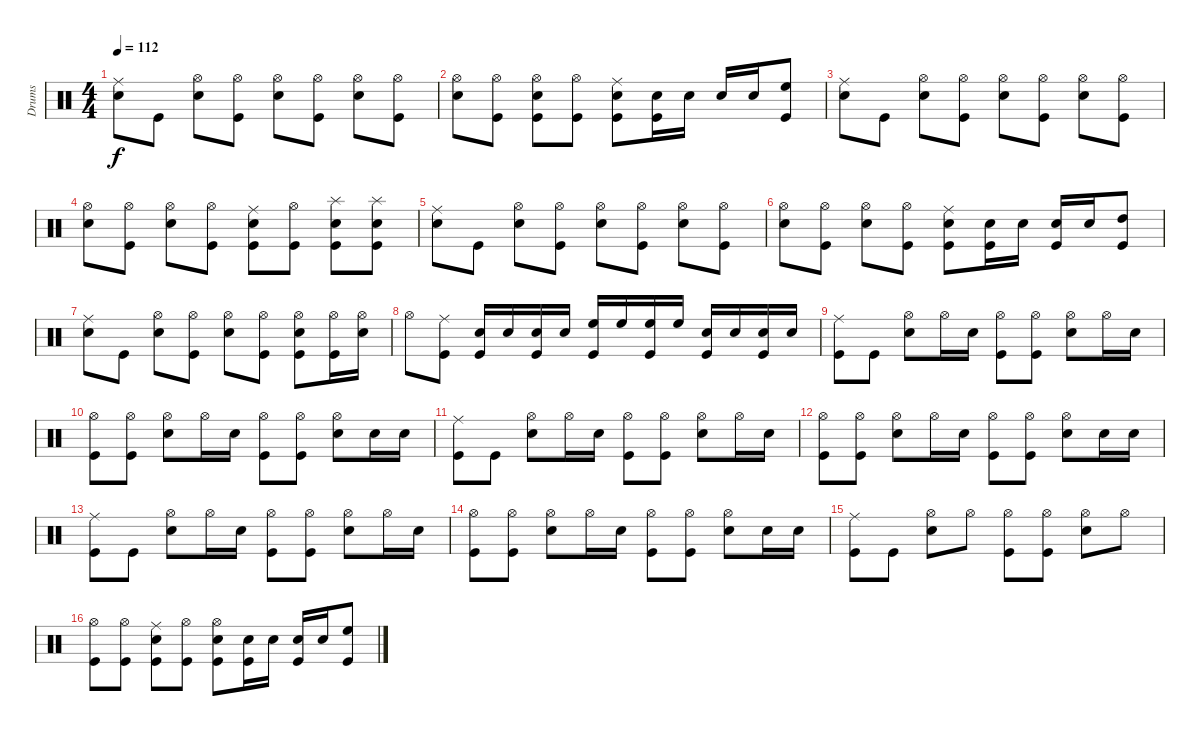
\track ("Drums" "Drums") {instrument percussion}
\staff {score}
\articulation defaults
\ts (4 4)
\tempo 112
\clef neutral
\ks c
("Ride (middle)" "Snare (hit) 2").8{dy f} "Kick (hit)".8 ("Hi-Hat (open)" "Snare (hit) 2").8 ("Hi-Hat (open)" "Kick (hit)").8 ("Hi-Hat (open)" "Snare (hit) 2").8 ("Hi-Hat (open)" "Kick (hit)").8 ("Hi-Hat (open)" "Snare (hit) 2").8 ("Hi-Hat (open)" "Kick (hit)").8 |
("Hi-Hat (open)" "Snare (hit) 2").8 ("Hi-Hat (open)" "Kick (hit)").8 ("Hi-Hat (open)" "Snare (hit) 2" "Kick (hit)").8 ("Hi-Hat (open)" "Kick (hit)").8 ("Ride (middle)" "Snare (hit) 2" "Kick (hit)").8 ("Snare (hit) 2" "Kick (hit)").16 "Snare (hit) 2".16 "Snare (hit) 2".16 "Snare (hit) 2".16 ("High Floor Tom (hit)" "Kick (hit)").8 |
("Ride (middle)" "Snare (hit) 2").8 "Kick (hit)".8 ("Hi-Hat (open)" "Snare (hit) 2").8 ("Hi-Hat (open)" "Kick (hit)").8 ("Hi-Hat (open)" "Snare (hit) 2").8 ("Hi-Hat (open)" "Kick (hit)").8 ("Hi-Hat (open)" "Snare (hit) 2").8 ("Hi-Hat (open)" "Kick (hit)").8 |
("Hi-Hat (open)" "Snare (hit) 2").8 ("Hi-Hat (open)" "Kick (hit)").8 ("Hi-Hat (open)" "Snare (hit) 2").8 ("Hi-Hat (open)" "Kick (hit)").8 ("Ride (middle)" "Snare (hit) 2" "Kick (hit)").8 ("Hi-Hat (open)" "Kick (hit)").8 ("Splash (hit)" "Snare (hit) 2" "Kick (hit)").8 ("Splash (hit)" "Snare (hit) 2" "Kick (hit)").8 |
("Ride (middle)" "Snare (hit) 2").8 "Kick (hit)".8 ("Hi-Hat (open)" "Snare (hit) 2").8 ("Hi-Hat (open)" "Kick (hit)").8 ("Hi-Hat (open)" "Snare (hit) 2").8 ("Hi-Hat (open)" "Kick (hit)").8 ("Hi-Hat (open)" "Snare (hit) 2").8 ("Hi-Hat (open)" "Kick (hit)").8 |
("Hi-Hat (open)" "Snare (hit) 2").8 ("Hi-Hat (open)" "Kick (hit)").8 ("Hi-Hat (open)" "Snare (hit) 2").8 ("Hi-Hat (open)" "Kick (hit)").8 ("Ride (middle)" "Snare (hit) 2" "Kick (hit)").8 ("Snare (hit) 2" "Kick (hit)").16 "Snare (hit) 2".16 ("Snare (hit) 2" "Kick (hit)").16 "Snare (hit) 2".16 ("High Tom (hit)" "Kick (hit)").8 |
("Ride (middle)" "Snare (hit) 2").8 "Kick (hit)".8 ("Hi-Hat (open)" "Snare (hit) 2").8 ("Hi-Hat (open)" "Kick (hit)").8 ("Hi-Hat (open)" "Snare (hit) 2").8 ("Hi-Hat (open)" "Kick (hit)").8 ("Hi-Hat (open)" "Snare (hit) 2" "Kick (hit)").8 ("Hi-Hat (open)" "Kick (hit)").16 ("Hi-Hat (open)" "Snare (hit) 2").16 |
"Hi-Hat (open)".8 ("Ride (middle)" "Kick (hit)").8 ("Snare (hit) 2" "Kick (hit)").16 "Snare (hit) 2".16 ("Snare (hit) 2" "Kick (hit)").16 "Snare (hit) 2".16 ("High Floor Tom (hit)" "Kick (hit)").16 "High Floor Tom (hit)".16 ("High Floor Tom (hit)" "Kick (hit)").16 "High Floor Tom (hit)".16 ("Snare (hit) 2" "Kick (hit)").16 "Snare (hit) 2".16 ("Snare (hit) 2" "Kick (hit)").16 "Snare (hit) 2".16 |
("Ride (middle)" "Kick (hit)").8 "Kick (hit)".8 ("Hi-Hat (open)" "Snare (hit) 2").8 "Hi-Hat (open)".16 "Snare (hit) 2".16 ("Hi-Hat (open)" "Kick (hit)").8 ("Hi-Hat (open)" "Kick (hit)").8 ("Hi-Hat (open)" "Snare (hit) 2").8 "Hi-Hat (open)".16 "Snare (hit) 2".16 |
("Hi-Hat (open)" "Kick (hit)").8 ("Hi-Hat (open)" "Kick (hit)").8 ("Hi-Hat (open)" "Snare (hit) 2").8 "Hi-Hat (open)".16 "Snare (hit) 2".16 ("Hi-Hat (open)" "Kick (hit)").8 ("Hi-Hat (open)" "Kick (hit)").8 ("Hi-Hat (open)" "Snare (hit) 2").8 "Snare (hit) 2".16 "Snare (hit) 2".16 |
("Ride (middle)" "Kick (hit)").8 "Kick (hit)".8 ("Hi-Hat (open)" "Snare (hit) 2").8 "Hi-Hat (open)".16 "Snare (hit) 2".16 ("Hi-Hat (open)" "Kick (hit)").8 ("Hi-Hat (open)" "Kick (hit)").8 ("Hi-Hat (open)" "Snare (hit) 2").8 "Hi-Hat (open)".16 "Snare (hit) 2".16 |
("Hi-Hat (open)" "Kick (hit)").8 ("Hi-Hat (open)" "Kick (hit)").8 ("Hi-Hat (open)" "Snare (hit) 2").8 "Hi-Hat (open)".16 "Snare (hit) 2".16 ("Hi-Hat (open)" "Kick (hit)").8 ("Hi-Hat (open)" "Kick (hit)").8 ("Hi-Hat (open)" "Snare (hit) 2").8 "Snare (hit) 2".16 "Snare (hit) 2".16 |
("Ride (middle)" "Kick (hit)").8 "Kick (hit)".8 ("Hi-Hat (open)" "Snare (hit) 2").8 "Hi-Hat (open)".16 "Snare (hit) 2".16 ("Hi-Hat (open)" "Kick (hit)").8 ("Hi-Hat (open)" "Kick (hit)").8 ("Hi-Hat (open)" "Snare (hit) 2").8 "Hi-Hat (open)".16 "Snare (hit) 2".16 |
("Hi-Hat (open)" "Kick (hit)").8 ("Hi-Hat (open)" "Kick (hit)").8 ("Hi-Hat (open)" "Snare (hit) 2").8 "Hi-Hat (open)".16 "Snare (hit) 2".16 ("Hi-Hat (open)" "Kick (hit)").8 ("Hi-Hat (open)" "Kick (hit)").8 ("Hi-Hat (open)" "Snare (hit) 2").8 "Snare (hit) 2".16 "Snare (hit) 2".16 |
("Ride (middle)" "Kick (hit)").8 "Kick (hit)".8 ("Hi-Hat (open)" "Snare (hit) 2").8 "Hi-Hat (open)".8 ("Hi-Hat (open)" "Kick (hit)").8 ("Hi-Hat (open)" "Kick (hit)").8 ("Hi-Hat (open)" "Snare (hit) 2").8 "Hi-Hat (open)".8 |
("Hi-Hat (open)" "Kick (hit)").8 ("Hi-Hat (open)" "Kick (hit)").8 ("Ride (middle)" "Snare (hit) 2" "Kick (hit)").8 ("Hi-Hat (open)" "Kick (hit)").8 ("Hi-Hat (open)" "Snare (hit) 2" "Kick (hit)").8 ("Snare (hit) 2" "Kick (hit)").16 "Snare (hit) 2".16 ("Snare (hit) 2" "Kick (hit)").16 "Snare (hit) 2".16 ("High Floor Tom (hit)" "Kick (hit)").8
